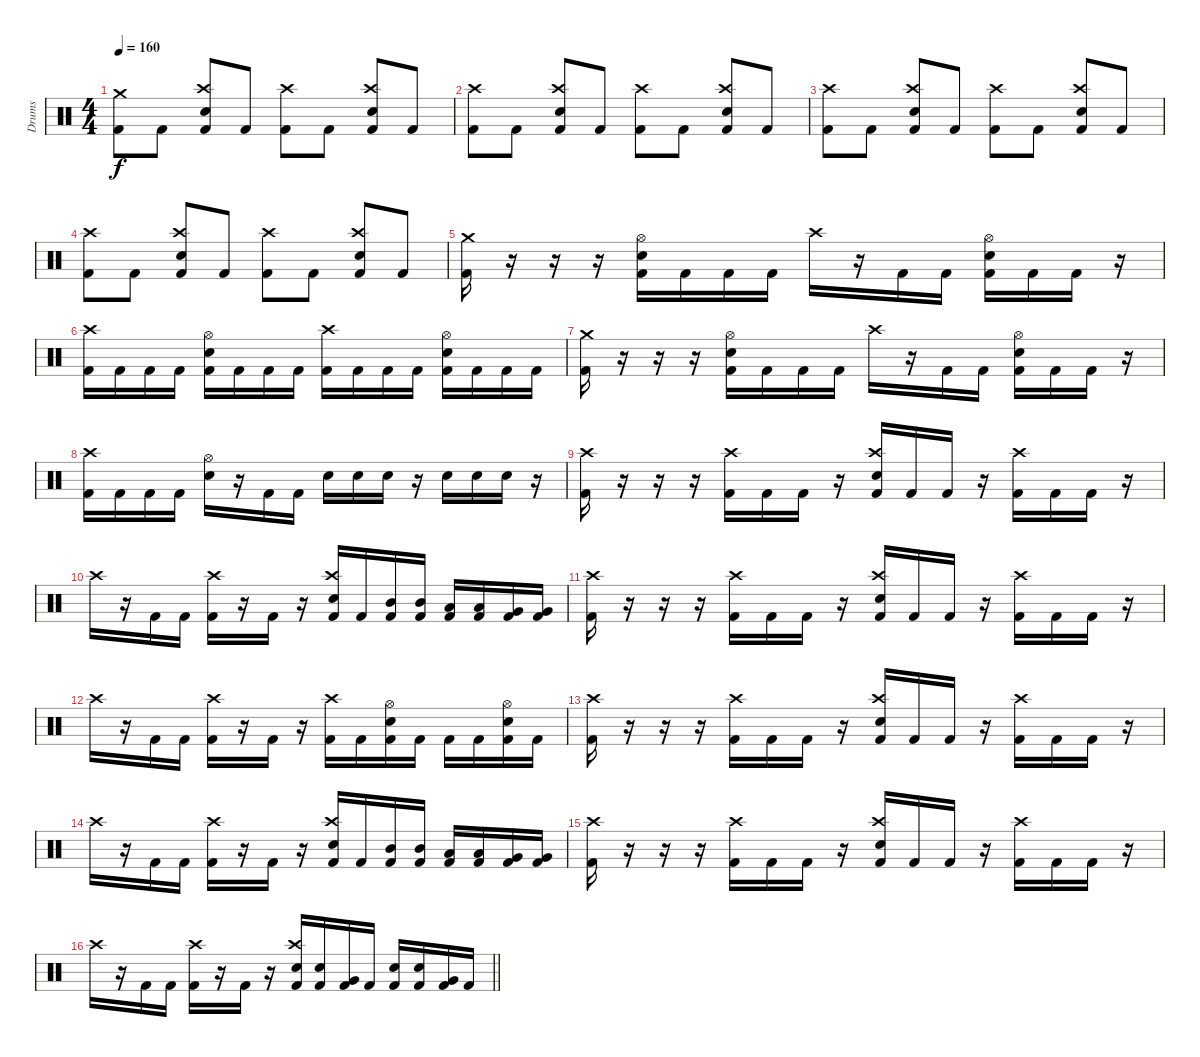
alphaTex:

\track ("Drums" "Drums") {instrument percussion}
\staff {score}
\articulation defaults
\ts (4 4)
\tempo 160
\clef neutral
\ks c
("Crash medium (hit)" "Kick (hit) 2").8{dy f} "Kick (hit) 2".8 ("Crash high (hit)" "Electric Snare (hit)" "Kick (hit) 2").8 "Kick (hit) 2".8 ("Crash high (hit)" "Kick (hit) 2").8 "Kick (hit) 2".8 ("Crash high (hit)" "Electric Snare (hit)" "Kick (hit) 2").8 "Kick (hit) 2".8 |
("Crash high (hit)" "Kick (hit) 2").8 "Kick (hit) 2".8 ("Crash high (hit)" "Electric Snare (hit)" "Kick (hit) 2").8 "Kick (hit) 2".8 ("Crash high (hit)" "Kick (hit) 2").8 "Kick (hit) 2".8 ("Crash high (hit)" "Electric Snare (hit)" "Kick (hit) 2").8 "Kick (hit) 2".8 |
("Crash high (hit)" "Kick (hit) 2").8 "Kick (hit) 2".8 ("Crash high (hit)" "Electric Snare (hit)" "Kick (hit) 2").8 "Kick (hit) 2".8 ("Crash high (hit)" "Kick (hit) 2").8 "Kick (hit) 2".8 ("Crash high (hit)" "Electric Snare (hit)" "Kick (hit) 2").8 "Kick (hit) 2".8 |
("Crash high (hit)" "Kick (hit) 2").8 "Kick (hit) 2".8 ("Crash high (hit)" "Electric Snare (hit)" "Kick (hit) 2").8 "Kick (hit) 2".8 ("Crash high (hit)" "Kick (hit) 2").8 "Kick (hit) 2".8 ("Crash high (hit)" "Electric Snare (hit)" "Kick (hit) 2").8 "Kick (hit) 2".8 |
("Crash medium (hit)" "Kick (hit) 2").16 r.16 r.16 r.16 ("Hi-Hat (open)" "Electric Snare (hit)" "Kick (hit) 2").16 "Kick (hit) 2".16 "Kick (hit) 2".16 "Kick (hit) 2".16 "Crash high (hit)".16 r.16 "Kick (hit) 2".16 "Kick (hit) 2".16 ("Hi-Hat (open)" "Electric Snare (hit)" "Kick (hit) 2").16 "Kick (hit) 2".16 "Kick (hit) 2".16 r.16 |
("Crash high (hit)" "Kick (hit) 2").16 "Kick (hit) 2".16 "Kick (hit) 2".16 "Kick (hit) 2".16 ("Hi-Hat (open)" "Electric Snare (hit)" "Kick (hit) 2").16 "Kick (hit) 2".16 "Kick (hit) 2".16 "Kick (hit) 2".16 ("Crash high (hit)" "Kick (hit) 2").16 "Kick (hit) 2".16 "Kick (hit) 2".16 "Kick (hit) 2".16 ("Hi-Hat (open)" "Electric Snare (hit)" "Kick (hit) 2").16 "Kick (hit) 2".16 "Kick (hit) 2".16 "Kick (hit) 2".16 |
("Crash medium (hit)" "Kick (hit) 2").16 r.16 r.16 r.16 ("Hi-Hat (open)" "Electric Snare (hit)" "Kick (hit) 2").16 "Kick (hit) 2".16 "Kick (hit) 2".16 "Kick (hit) 2".16 "Crash high (hit)".16 r.16 "Kick (hit) 2".16 "Kick (hit) 2".16 ("Hi-Hat (open)" "Electric Snare (hit)" "Kick (hit) 2").16 "Kick (hit) 2".16 "Kick (hit) 2".16 r.16 |
("Crash high (hit)" "Kick (hit) 2").16 "Kick (hit) 2".16 "Kick (hit) 2".16 "Kick (hit) 2".16 ("Hi-Hat (open)" "Electric Snare (hit)").16 r.16 "Kick (hit) 2".16 "Kick (hit) 2".16 "Electric Snare (hit)".16 "Electric Snare (hit)".16 "Electric Snare (hit)".16 r.16 "Electric Snare (hit)".16 "Electric Snare (hit)".16 "Electric Snare (hit)".16 r.16 |
("Crash high (hit)" "Kick (hit) 2").16 r.16 r.16 r.16 ("Crash high (hit)" "Kick (hit) 2").16 "Kick (hit) 2".16 "Kick (hit) 2".16 r.16 ("Crash high (hit)" "Electric Snare (hit)" "Kick (hit) 2").16 "Kick (hit) 2".16 "Kick (hit) 2".16 r.16 ("Crash high (hit)" "Kick (hit) 2").16 "Kick (hit) 2".16 "Kick (hit) 2".16 r.16 |
"Crash high (hit)".16 r.16 "Kick (hit) 2".16 "Kick (hit) 2".16 ("Crash high (hit)" "Kick (hit) 2").16 r.16 "Kick (hit) 2".16 r.16 ("Crash high (hit)" "Electric Snare (hit)" "Kick (hit) 2").16 "Kick (hit) 2".16 ("Mid Tom (hit)" "Kick (hit) 2").16 ("Mid Tom (hit)" "Kick (hit) 2").16 ("Low Tom (hit)" "Kick (hit) 2").16 ("Low Tom (hit)" "Kick (hit) 2").16 ("Very Low Tom (hit)" "Kick (hit) 2").16 ("Very Low Tom (hit)" "Kick (hit) 2").16 |
("Crash high (hit)" "Kick (hit) 2").16 r.16 r.16 r.16 ("Crash high (hit)" "Kick (hit) 2").16 "Kick (hit) 2".16 "Kick (hit) 2".16 r.16 ("Crash high (hit)" "Electric Snare (hit)" "Kick (hit) 2").16 "Kick (hit) 2".16 "Kick (hit) 2".16 r.16 ("Crash high (hit)" "Kick (hit) 2").16 "Kick (hit) 2".16 "Kick (hit) 2".16 r.16 |
"Crash high (hit)".16 r.16 "Kick (hit) 2".16 "Kick (hit) 2".16 ("Crash high (hit)" "Kick (hit) 2").16 r.16 "Kick (hit) 2".16 r.16 ("Crash high (hit)" "Kick (hit) 2").16 "Kick (hit) 2".16 ("Hi-Hat (open)" "Electric Snare (hit)" "Kick (hit) 2").16 "Kick (hit) 2".16 "Kick (hit) 2".16 "Kick (hit) 2".16 ("Hi-Hat (open)" "Electric Snare (hit)" "Kick (hit) 2").16 "Kick (hit) 2".16 |
("Crash high (hit)" "Kick (hit) 2").16 r.16 r.16 r.16 ("Crash high (hit)" "Kick (hit) 2").16 "Kick (hit) 2".16 "Kick (hit) 2".16 r.16 ("Crash high (hit)" "Electric Snare (hit)" "Kick (hit) 2").16 "Kick (hit) 2".16 "Kick (hit) 2".16 r.16 ("Crash high (hit)" "Kick (hit) 2").16 "Kick (hit) 2".16 "Kick (hit) 2".16 r.16 |
"Crash high (hit)".16 r.16 "Kick (hit) 2".16 "Kick (hit) 2".16 ("Crash high (hit)" "Kick (hit) 2").16 r.16 "Kick (hit) 2".16 r.16 ("Crash high (hit)" "Electric Snare (hit)" "Kick (hit) 2").16 "Kick (hit) 2".16 ("Mid Tom (hit)" "Kick (hit) 2").16 ("Mid Tom (hit)" "Kick (hit) 2").16 ("Low Tom (hit)" "Kick (hit) 2").16 ("Low Tom (hit)" "Kick (hit) 2").16 ("Very Low Tom (hit)" "Kick (hit) 2").16 ("Very Low Tom (hit)" "Kick (hit) 2").16 |
("Crash high (hit)" "Kick (hit) 2").16 r.16 r.16 r.16 ("Crash high (hit)" "Kick (hit) 2").16 "Kick (hit) 2".16 "Kick (hit) 2".16 r.16 ("Crash high (hit)" "Electric Snare (hit)" "Kick (hit) 2").16 "Kick (hit) 2".16 "Kick (hit) 2".16 r.16 ("Crash high (hit)" "Kick (hit) 2").16 "Kick (hit) 2".16 "Kick (hit) 2".16 r.16 |
\barLineRight lightlight "Crash high (hit)".16
r.16 "Kick (hit) 2".16 "Kick (hit) 2".16 ("Crash high (hit)" "Kick (hit) 2").16 r.16 "Kick (hit) 2".16 r.16 ("Crash high (hit)" "Electric Snare (hit)" "Kick (hit) 2").16 ("Electric Snare (hit)" "Kick (hit) 2").16 ("Very Low Tom (hit)" "Kick (hit) 2").16 "Kick (hit) 2".16 ("Electric Snare (hit)" "Kick (hit) 2").16 ("Electric Snare (hit)" "Kick (hit) 2").16 ("Very Low Tom (hit)" "Kick (hit) 2").16 "Kick (hit) 2".16
